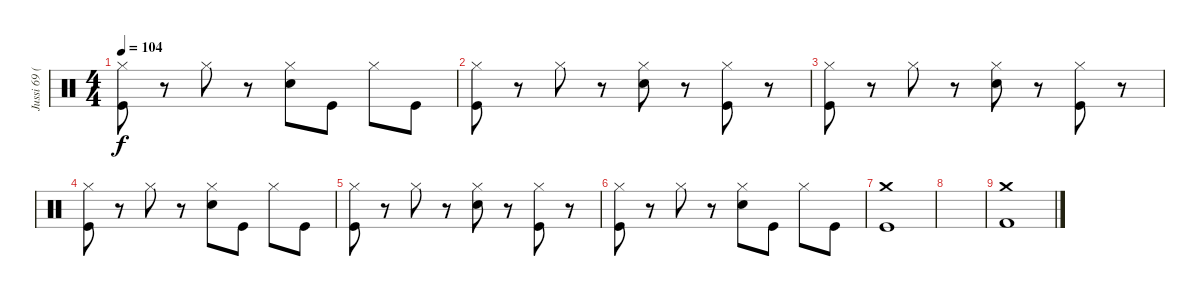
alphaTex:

\track ("Jussi 69 (Batería)" "Jussi 69 (") {instrument percussion}
\staff {score}
\articulation defaults
\ts (4 4)
\tempo 104
\clef neutral
\ks c
("Hi-Hat (closed)" "Kick (hit)").8{dy f} r.8 "Hi-Hat (closed)".8 r.8 ("Hi-Hat (closed)" "Electric Snare (hit)").8 "Kick (hit)".8 "Hi-Hat (closed)".8 "Kick (hit)".8 |
("Hi-Hat (closed)" "Kick (hit)").8 r.8 "Hi-Hat (closed)".8 r.8 ("Hi-Hat (closed)" "Electric Snare (hit)").8 r.8 ("Hi-Hat (closed)" "Kick (hit)").8 r.8 |
("Hi-Hat (closed)" "Kick (hit)").8 r.8 "Hi-Hat (closed)".8 r.8 ("Hi-Hat (closed)" "Electric Snare (hit)").8 r.8 ("Hi-Hat (closed)" "Kick (hit)").8 r.8 |
("Hi-Hat (closed)" "Kick (hit)").8 r.8 "Hi-Hat (closed)".8 r.8 ("Hi-Hat (closed)" "Electric Snare (hit)").8 "Kick (hit)".8 "Hi-Hat (closed)".8 "Kick (hit)".8 |
("Hi-Hat (closed)" "Kick (hit)").8 r.8 "Hi-Hat (closed)".8 r.8 ("Hi-Hat (closed)" "Electric Snare (hit)").8 r.8 ("Hi-Hat (closed)" "Kick (hit)").8 r.8 |
("Hi-Hat (closed)" "Kick (hit)").8 r.8 "Hi-Hat (closed)".8 r.8 ("Hi-Hat (closed)" "Electric Snare (hit)").8 "Kick (hit)".8 "Hi-Hat (closed)".8 "Kick (hit)".8 |
("Crash medium (hit)" "Kick (hit)").1 |
|
("Crash medium (hit)" "Kick (hit) 2").1
